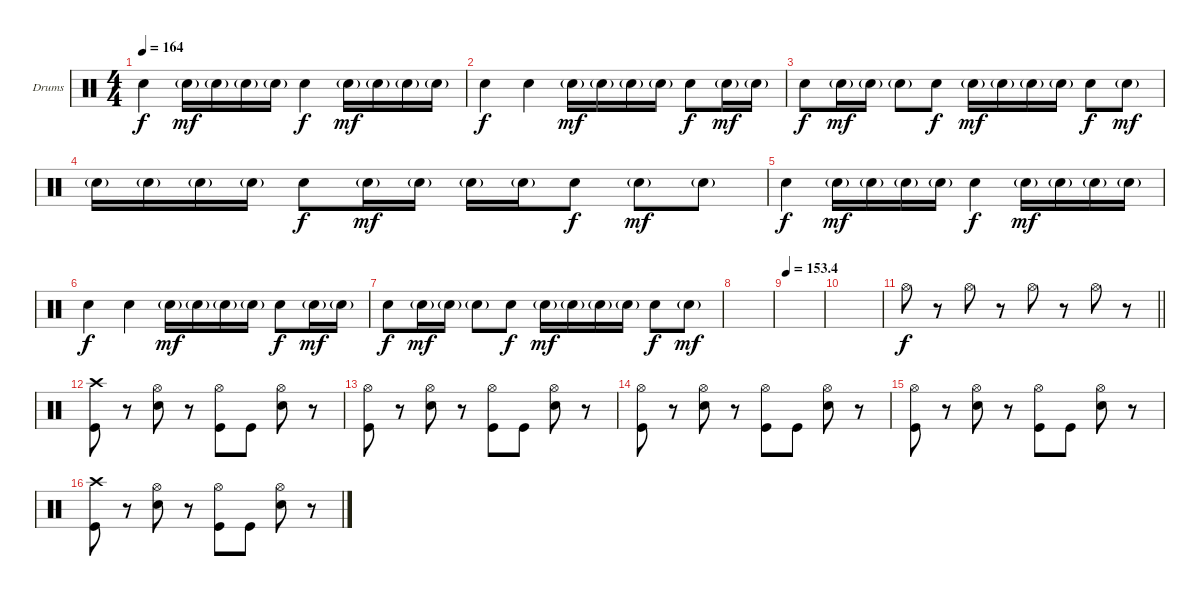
\bracketExtendMode groupsimilarinstruments
\firstSystemTrackNameOrientation horizontal
\otherSystemsTrackNameOrientation horizontal
\track ("Drumkit" "Drums") {instrument percussion}
\staff {score}
\articulation defaults
\ts (4 4)
\tempo 164
\clef neutral
\ks c "Snare (hit) 2".4{dy f} "Snare (hit) 2"{g}.16{dy mf} "Snare (hit) 2"{g}.16 "Snare (hit) 2"{g}.16 "Snare (hit) 2"{g}.16 "Snare (hit) 2".4{dy f} "Snare (hit) 2"{g}.16{dy mf} "Snare (hit) 2"{g}.16 "Snare (hit) 2"{g}.16 "Snare (hit) 2"{g}.16
|
"Snare (hit) 2".4{dy f} "Snare (hit) 2".4 "Snare (hit) 2"{g}.16{dy mf} "Snare (hit) 2"{g}.16 "Snare (hit) 2"{g}.16 "Snare (hit) 2"{g}.16 "Snare (hit) 2".8{dy f} "Snare (hit) 2"{g}.16{dy mf} "Snare (hit) 2"{g}.16 |
"Snare (hit) 2".8{dy f} "Snare (hit) 2"{g}.16{dy mf} "Snare (hit) 2"{g}.16 "Snare (hit) 2"{g}.8 "Snare (hit) 2".8{dy f} "Snare (hit) 2"{g}.16{dy mf} "Snare (hit) 2"{g}.16 "Snare (hit) 2"{g}.16 "Snare (hit) 2"{g}.16 "Snare (hit) 2".8{dy f} "Snare (hit) 2"{g}.8{dy mf} |
"Snare (hit) 2"{g}.16 "Snare (hit) 2"{g}.16 "Snare (hit) 2"{g}.16 "Snare (hit) 2"{g}.16 "Snare (hit) 2".8{dy f} "Snare (hit) 2"{g}.16{dy mf} "Snare (hit) 2"{g}.16 "Snare (hit) 2"{g}.16 "Snare (hit) 2"{g}.16 "Snare (hit) 2".8{dy f} "Snare (hit) 2"{g}.8{dy mf} "Snare (hit) 2"{g}.8 |
"Snare (hit) 2".4{dy f} "Snare (hit) 2"{g}.16{dy mf} "Snare (hit) 2"{g}.16 "Snare (hit) 2"{g}.16 "Snare (hit) 2"{g}.16 "Snare (hit) 2".4{dy f} "Snare (hit) 2"{g}.16{dy mf} "Snare (hit) 2"{g}.16 "Snare (hit) 2"{g}.16 "Snare (hit) 2"{g}.16 |
"Snare (hit) 2".4{dy f} "Snare (hit) 2".4 "Snare (hit) 2"{g}.16{dy mf} "Snare (hit) 2"{g}.16 "Snare (hit) 2"{g}.16 "Snare (hit) 2"{g}.16 "Snare (hit) 2".8{dy f} "Snare (hit) 2"{g}.16{dy mf} "Snare (hit) 2"{g}.16 |
"Snare (hit) 2".8{dy f} "Snare (hit) 2"{g}.16{dy mf} "Snare (hit) 2"{g}.16 "Snare (hit) 2"{g}.8 "Snare (hit) 2".8{dy f} "Snare (hit) 2"{g}.16{dy mf} "Snare (hit) 2"{g}.16 "Snare (hit) 2"{g}.16 "Snare (hit) 2"{g}.16 "Snare (hit) 2".8{dy f} "Snare (hit) 2"{g}.8{dy mf} |
|
\tempo
153.4 |
|
\barLineRight lightlight "Hi-Hat (open)".8{dy f}
r.8 "Hi-Hat (open)".8 r.8 "Hi-Hat (open)".8 r.8 "Hi-Hat (open)".8 r.8 |
("Crash high (hit)" "Kick (hit)").8 r.8 ("Hi-Hat (open)" "Snare (hit) 2").8 r.8 ("Hi-Hat (open)" "Kick (hit)").8 "Kick (hit)".8 ("Hi-Hat (open)" "Snare (hit) 2").8 r.8 |
("Hi-Hat (open)" "Kick (hit)").8 r.8 ("Hi-Hat (open)" "Snare (hit) 2").8 r.8 ("Hi-Hat (open)" "Kick (hit)").8 "Kick (hit)".8 ("Hi-Hat (open)" "Snare (hit) 2").8 r.8 |
("Hi-Hat (open)" "Kick (hit)").8 r.8 ("Hi-Hat (open)" "Snare (hit) 2").8 r.8 ("Hi-Hat (open)" "Kick (hit)").8 "Kick (hit)".8 ("Hi-Hat (open)" "Snare (hit) 2").8 r.8 |
("Hi-Hat (open)" "Kick (hit)").8 r.8 ("Hi-Hat (open)" "Snare (hit) 2").8 r.8 ("Hi-Hat (open)" "Kick (hit)").8 "Kick (hit)".8 ("Hi-Hat (open)" "Snare (hit) 2").8 r.8 |
("Crash high (hit)" "Kick (hit)").8 r.8 ("Hi-Hat (open)" "Snare (hit) 2").8 r.8 ("Hi-Hat (open)" "Kick (hit)").8 "Kick (hit)".8 ("Hi-Hat (open)" "Snare (hit) 2").8 r.8
